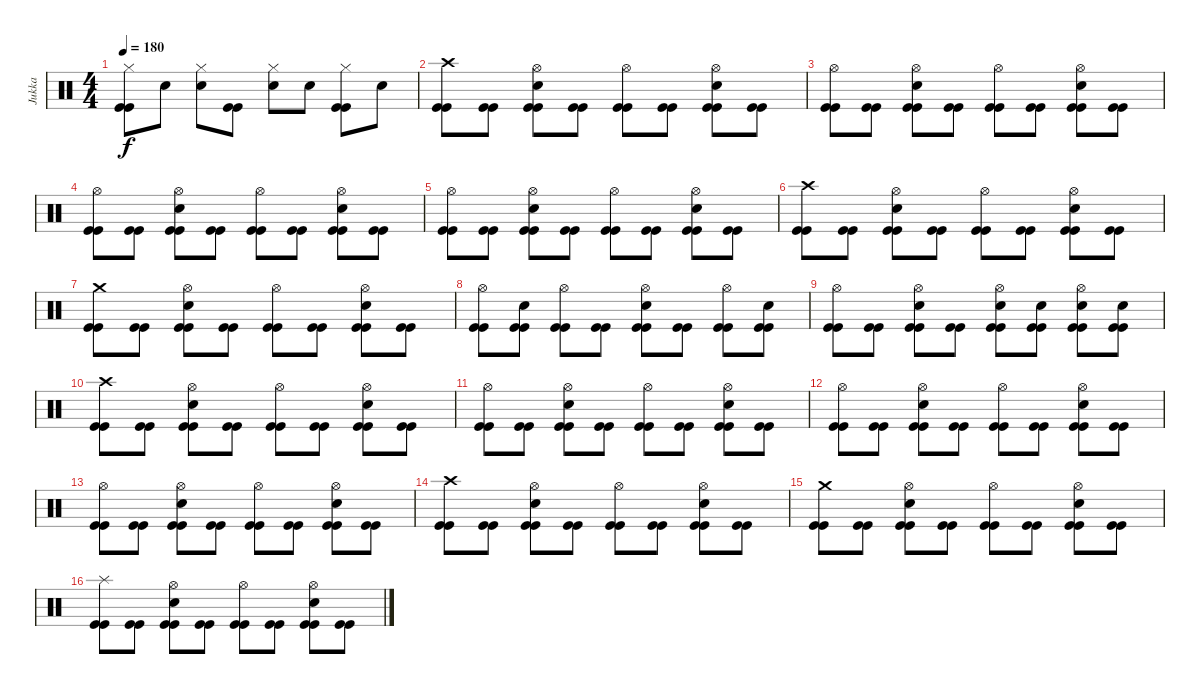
\track ("Jukka" "Jukka") {instrument percussion}
\staff {score}
\articulation defaults
\ts (4 4)
\tempo 180
\clef neutral
\ks c
("Hi-Hat (closed)" "Kick (hit)" "Kick (hit)").8{dy f} "Snare (hit) 2".8 ("Hi-Hat (closed)" "Snare (hit) 2").8 ("Kick (hit)" "Kick (hit)").8 ("Hi-Hat (closed)" "Snare (hit) 2").8 "Snare (hit) 2".8 ("Hi-Hat (closed)" "Kick (hit)" "Kick (hit)").8 "Snare (hit) 2".8 |
("Crash high (hit)" "Kick (hit)" "Kick (hit)").8 ("Kick (hit)" "Kick (hit)").8 ("Hi-Hat (open)" "Kick (hit)" "Kick (hit)" "Snare (hit) 2").8 ("Kick (hit)" "Kick (hit)").8 ("Hi-Hat (open)" "Kick (hit)" "Kick (hit)").8 ("Kick (hit)" "Kick (hit)").8 ("Hi-Hat (open)" "Kick (hit)" "Kick (hit)" "Snare (hit) 2").8 ("Kick (hit)" "Kick (hit)").8 |
("Hi-Hat (open)" "Kick (hit)" "Kick (hit)").8 ("Kick (hit)" "Kick (hit)").8 ("Hi-Hat (open)" "Kick (hit)" "Kick (hit)" "Snare (hit) 2").8 ("Kick (hit)" "Kick (hit)").8 ("Hi-Hat (open)" "Kick (hit)" "Kick (hit)").8 ("Kick (hit)" "Kick (hit)").8 ("Hi-Hat (open)" "Kick (hit)" "Kick (hit)" "Snare (hit) 2").8 ("Kick (hit)" "Kick (hit)").8 |
("Hi-Hat (open)" "Kick (hit)" "Kick (hit)").8 ("Kick (hit)" "Kick (hit)").8 ("Hi-Hat (open)" "Kick (hit)" "Kick (hit)" "Snare (hit) 2").8 ("Kick (hit)" "Kick (hit)").8 ("Hi-Hat (open)" "Kick (hit)" "Kick (hit)").8 ("Kick (hit)" "Kick (hit)").8 ("Hi-Hat (open)" "Kick (hit)" "Kick (hit)" "Snare (hit) 2").8 ("Kick (hit)" "Kick (hit)").8 |
("Hi-Hat (open)" "Kick (hit)" "Kick (hit)").8 ("Kick (hit)" "Kick (hit)").8 ("Hi-Hat (open)" "Kick (hit)" "Kick (hit)" "Snare (hit) 2").8 ("Kick (hit)" "Kick (hit)").8 ("Hi-Hat (open)" "Kick (hit)" "Kick (hit)").8 ("Kick (hit)" "Kick (hit)").8 ("Hi-Hat (open)" "Kick (hit)" "Kick (hit)" "Snare (hit) 2").8 ("Kick (hit)" "Kick (hit)").8 |
("Crash high (hit)" "Kick (hit)" "Kick (hit)").8 ("Kick (hit)" "Kick (hit)").8 ("Hi-Hat (open)" "Kick (hit)" "Kick (hit)" "Snare (hit) 2").8 ("Kick (hit)" "Kick (hit)").8 ("Hi-Hat (open)" "Kick (hit)" "Kick (hit)").8 ("Kick (hit)" "Kick (hit)").8 ("Hi-Hat (open)" "Kick (hit)" "Kick (hit)" "Snare (hit) 2").8 ("Kick (hit)" "Kick (hit)").8 |
("Crash medium (hit)" "Kick (hit)" "Kick (hit)").8 ("Kick (hit)" "Kick (hit)").8 ("Hi-Hat (open)" "Kick (hit)" "Kick (hit)" "Snare (hit) 2").8 ("Kick (hit)" "Kick (hit)").8 ("Hi-Hat (open)" "Kick (hit)" "Kick (hit)").8 ("Kick (hit)" "Kick (hit)").8 ("Hi-Hat (open)" "Kick (hit)" "Kick (hit)" "Snare (hit) 2").8 ("Kick (hit)" "Kick (hit)").8 |
("Hi-Hat (open)" "Kick (hit)" "Kick (hit)").8 ("Kick (hit)" "Kick (hit)" "Snare (hit) 2").8 ("Hi-Hat (open)" "Kick (hit)" "Kick (hit)").8 ("Kick (hit)" "Kick (hit)").8 ("Hi-Hat (open)" "Kick (hit)" "Kick (hit)" "Snare (hit) 2").8 ("Kick (hit)" "Kick (hit)").8 ("Hi-Hat (open)" "Kick (hit)" "Kick (hit)").8 ("Kick (hit)" "Kick (hit)" "Snare (hit) 2").8 |
("Hi-Hat (open)" "Kick (hit)" "Kick (hit)").8 ("Kick (hit)" "Kick (hit)").8 ("Hi-Hat (open)" "Kick (hit)" "Kick (hit)" "Snare (hit) 2").8 ("Kick (hit)" "Kick (hit)").8 ("Hi-Hat (open)" "Kick (hit)" "Kick (hit)" "Snare (hit) 2").8 ("Kick (hit)" "Kick (hit)" "Snare (hit) 2").8 ("Hi-Hat (open)" "Kick (hit)" "Kick (hit)" "Snare (hit) 2").8 ("Kick (hit)" "Kick (hit)" "Snare (hit) 2").8 |
("Crash high (hit)" "Kick (hit)" "Kick (hit)").8 ("Kick (hit)" "Kick (hit)").8 ("Hi-Hat (open)" "Kick (hit)" "Kick (hit)" "Snare (hit) 2").8 ("Kick (hit)" "Kick (hit)").8 ("Hi-Hat (open)" "Kick (hit)" "Kick (hit)").8 ("Kick (hit)" "Kick (hit)").8 ("Hi-Hat (open)" "Kick (hit)" "Kick (hit)" "Snare (hit) 2").8 ("Kick (hit)" "Kick (hit)").8 |
("Hi-Hat (open)" "Kick (hit)" "Kick (hit)").8 ("Kick (hit)" "Kick (hit)").8 ("Hi-Hat (open)" "Kick (hit)" "Kick (hit)" "Snare (hit) 2").8 ("Kick (hit)" "Kick (hit)").8 ("Hi-Hat (open)" "Kick (hit)" "Kick (hit)").8 ("Kick (hit)" "Kick (hit)").8 ("Hi-Hat (open)" "Kick (hit)" "Kick (hit)" "Snare (hit) 2").8 ("Kick (hit)" "Kick (hit)").8 |
("Hi-Hat (open)" "Kick (hit)" "Kick (hit)").8 ("Kick (hit)" "Kick (hit)").8 ("Hi-Hat (open)" "Kick (hit)" "Kick (hit)" "Snare (hit) 2").8 ("Kick (hit)" "Kick (hit)").8 ("Hi-Hat (open)" "Kick (hit)" "Kick (hit)").8 ("Kick (hit)" "Kick (hit)").8 ("Hi-Hat (open)" "Kick (hit)" "Kick (hit)" "Snare (hit) 2").8 ("Kick (hit)" "Kick (hit)").8 |
("Hi-Hat (open)" "Kick (hit)" "Kick (hit)").8 ("Kick (hit)" "Kick (hit)").8 ("Hi-Hat (open)" "Kick (hit)" "Kick (hit)" "Snare (hit) 2").8 ("Kick (hit)" "Kick (hit)").8 ("Hi-Hat (open)" "Kick (hit)" "Kick (hit)").8 ("Kick (hit)" "Kick (hit)").8 ("Hi-Hat (open)" "Kick (hit)" "Kick (hit)" "Snare (hit) 2").8 ("Kick (hit)" "Kick (hit)").8 |
("Crash high (hit)" "Kick (hit)" "Kick (hit)").8 ("Kick (hit)" "Kick (hit)").8 ("Hi-Hat (open)" "Kick (hit)" "Kick (hit)" "Snare (hit) 2").8 ("Kick (hit)" "Kick (hit)").8 ("Hi-Hat (open)" "Kick (hit)" "Kick (hit)").8 ("Kick (hit)" "Kick (hit)").8 ("Hi-Hat (open)" "Kick (hit)" "Kick (hit)" "Snare (hit) 2").8 ("Kick (hit)" "Kick (hit)").8 |
("Crash medium (hit)" "Kick (hit)" "Kick (hit)").8 ("Kick (hit)" "Kick (hit)").8 ("Hi-Hat (open)" "Kick (hit)" "Kick (hit)" "Snare (hit) 2").8 ("Kick (hit)" "Kick (hit)").8 ("Hi-Hat (open)" "Kick (hit)" "Kick (hit)").8 ("Kick (hit)" "Kick (hit)").8 ("Hi-Hat (open)" "Kick (hit)" "Kick (hit)" "Snare (hit) 2").8 ("Kick (hit)" "Kick (hit)").8 |
("Splash (hit)" "Kick (hit)" "Kick (hit)").8 ("Kick (hit)" "Kick (hit)").8 ("Hi-Hat (open)" "Kick (hit)" "Kick (hit)" "Snare (hit) 2").8 ("Kick (hit)" "Kick (hit)").8 ("Hi-Hat (open)" "Kick (hit)" "Kick (hit)").8 ("Kick (hit)" "Kick (hit)").8 ("Hi-Hat (open)" "Kick (hit)" "Kick (hit)" "Snare (hit) 2").8 ("Kick (hit)" "Kick (hit)").8
